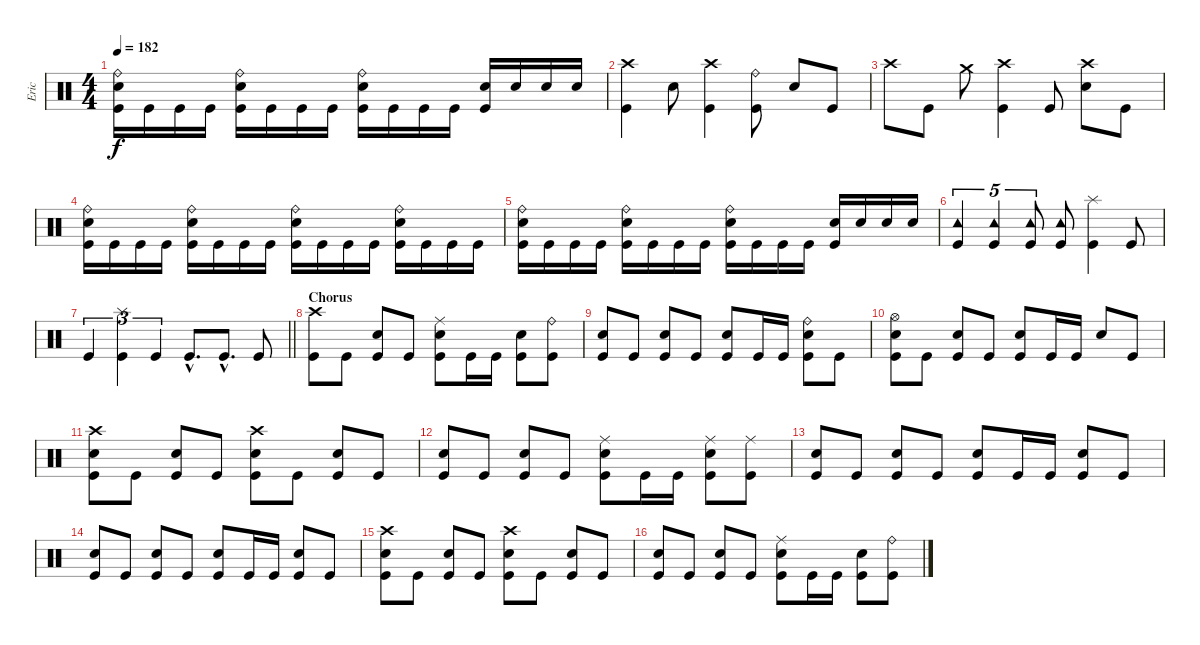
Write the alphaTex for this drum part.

\track ("Eric" "Eric") {instrument percussion}
\staff {score}
\articulation defaults
\ts (4 4)
\tempo 182
\clef neutral
\ks c
("Ride (bell)" "Snare (hit) 2" "Kick (hit)").16{dy f} "Kick (hit)".16 "Kick (hit)".16 "Kick (hit)".16 ("Ride (bell)" "Snare (hit) 2" "Kick (hit)").16 "Kick (hit)".16 "Kick (hit)".16 "Kick (hit)".16 ("Ride (bell)" "Snare (hit) 2" "Kick (hit)").16 "Kick (hit)".16 "Kick (hit)".16 "Kick (hit)".16 ("Snare (hit) 2" "Kick (hit)").16 "Snare (hit) 2".16 "Snare (hit) 2".16 "Snare (hit) 2".16 |
("Crash high (hit)" "Kick (hit)").4 "Snare (hit) 2".8 ("Crash high (hit)" "Kick (hit)").4 ("Ride (bell)" "Kick (hit)").8 "Snare (hit) 2".8 "Kick (hit)".8 |
"Crash high (hit)".8 "Kick (hit)".8 "Crash medium (hit)".8 ("Crash high (hit)" "Kick (hit)").4 "Kick (hit)".8 ("Crash high (hit)" "Snare (hit) 2").8 "Kick (hit)".8 |
("Ride (bell)" "Snare (hit) 2" "Kick (hit)").16 "Kick (hit)".16 "Kick (hit)".16 "Kick (hit)".16 ("Ride (bell)" "Snare (hit) 2" "Kick (hit)").16 "Kick (hit)".16 "Kick (hit)".16 "Kick (hit)".16 ("Ride (bell)" "Snare (hit) 2" "Kick (hit)").16 "Kick (hit)".16 "Kick (hit)".16 "Kick (hit)".16 ("Ride (bell)" "Snare (hit) 2" "Kick (hit)").16 "Kick (hit)".16 "Kick (hit)".16 "Kick (hit)".16 |
("Ride (bell)" "Snare (hit) 2" "Kick (hit)").16 "Kick (hit)".16 "Kick (hit)".16 "Kick (hit)".16 ("Ride (bell)" "Snare (hit) 2" "Kick (hit)").16 "Kick (hit)".16 "Kick (hit)".16 "Kick (hit)".16 ("Ride (bell)" "Snare (hit) 2" "Kick (hit)").16 "Kick (hit)".16 "Kick (hit)".16 "Kick (hit)".16 ("Snare (hit) 2" "Kick (hit)").16 "Snare (hit) 2".16 "Snare (hit) 2".16 "Snare (hit) 2".16 |
("Tambourine (hit)" "Kick (hit)").4{tu (5 4)} ("Tambourine (hit)" "Kick (hit)").4{tu (5 4)} ("Tambourine (hit)" "Kick (hit)").8{tu (5 4)} ("Tambourine (hit)" "Kick (hit)").8 ("Splash (hit)" "Kick (hit)").4 "Kick (hit)".8 |
\barLineRight lightlight "Kick (hit)".4{tu (3 2)}
("Splash (hit)" "Kick (hit)").4{tu (3 2)} "Kick (hit)".4{tu (3 2)} "Kick (hit)"{hac}.8{d} "Kick (hit)"{hac}.8{d} "Kick (hit)".8 |
\section ("" "Chorus")
("Crash high (hit)" "Kick (hit)").8 "Kick (hit)".8 ("Snare (hit) 2" "Kick (hit)").8 "Kick (hit)".8 ("Ride (middle)" "Snare (hit) 2" "Kick (hit)").8 "Kick (hit)".16 "Kick (hit)".16 ("Snare (hit) 2" "Kick (hit)").8 ("Ride (bell)" "Kick (hit)").8 |
("Snare (hit) 2" "Kick (hit)").8 "Kick (hit)".8 ("Snare (hit) 2" "Kick (hit)").8 "Kick (hit)".8 ("Snare (hit) 2" "Kick (hit)").8 "Kick (hit)".16 "Kick (hit)".16 ("Ride (bell)" "Snare (hit) 2" "Kick (hit)").8 "Kick (hit)".8 |
("Hi-Hat (open)" "Snare (hit) 2" "Kick (hit)").8 "Kick (hit)".8 ("Snare (hit) 2" "Kick (hit)").8 "Kick (hit)".8 ("Snare (hit) 2" "Kick (hit)").8 "Kick (hit)".16 "Kick (hit)".16 "Snare (hit) 2".8 "Kick (hit)".8 |
("Crash high (hit)" "Snare (hit) 2" "Kick (hit)").8 "Kick (hit)".8 ("Snare (hit) 2" "Kick (hit)").8 "Kick (hit)".8 ("Crash high (hit)" "Snare (hit) 2" "Kick (hit)").8 "Kick (hit)".8 ("Snare (hit) 2" "Kick (hit)").8 "Kick (hit)".8 |
("Snare (hit) 2" "Kick (hit)").8 "Kick (hit)".8 ("Snare (hit) 2" "Kick (hit)").8 "Kick (hit)".8 ("Ride (middle)" "Snare (hit) 2" "Kick (hit)").8 "Kick (hit)".16 "Kick (hit)".16 ("Ride (middle)" "Snare (hit) 2" "Kick (hit)").8 ("Ride (middle)" "Kick (hit)").8 |
("Snare (hit) 2" "Kick (hit)").8 "Kick (hit)".8 ("Snare (hit) 2" "Kick (hit)").8 "Kick (hit)".8 ("Snare (hit) 2" "Kick (hit)").8 "Kick (hit)".16 "Kick (hit)".16 ("Snare (hit) 2" "Kick (hit)").8 "Kick (hit)".8 |
("Snare (hit) 2" "Kick (hit)").8 "Kick (hit)".8 ("Snare (hit) 2" "Kick (hit)").8 "Kick (hit)".8 ("Snare (hit) 2" "Kick (hit)").8 "Kick (hit)".16 "Kick (hit)".16 ("Snare (hit) 2" "Kick (hit)").8 "Kick (hit)".8 |
("Crash high (hit)" "Snare (hit) 2" "Kick (hit)").8 "Kick (hit)".8 ("Snare (hit) 2" "Kick (hit)").8 "Kick (hit)".8 ("Crash high (hit)" "Snare (hit) 2" "Kick (hit)").8 "Kick (hit)".8 ("Snare (hit) 2" "Kick (hit)").8 "Kick (hit)".8 |
("Snare (hit) 2" "Kick (hit)").8 "Kick (hit)".8 ("Snare (hit) 2" "Kick (hit)").8 "Kick (hit)".8 ("Ride (middle)" "Snare (hit) 2" "Kick (hit)").8 "Kick (hit)".16 "Kick (hit)".16 ("Snare (hit) 2" "Kick (hit)").8 ("Ride (bell)" "Kick (hit)").8
